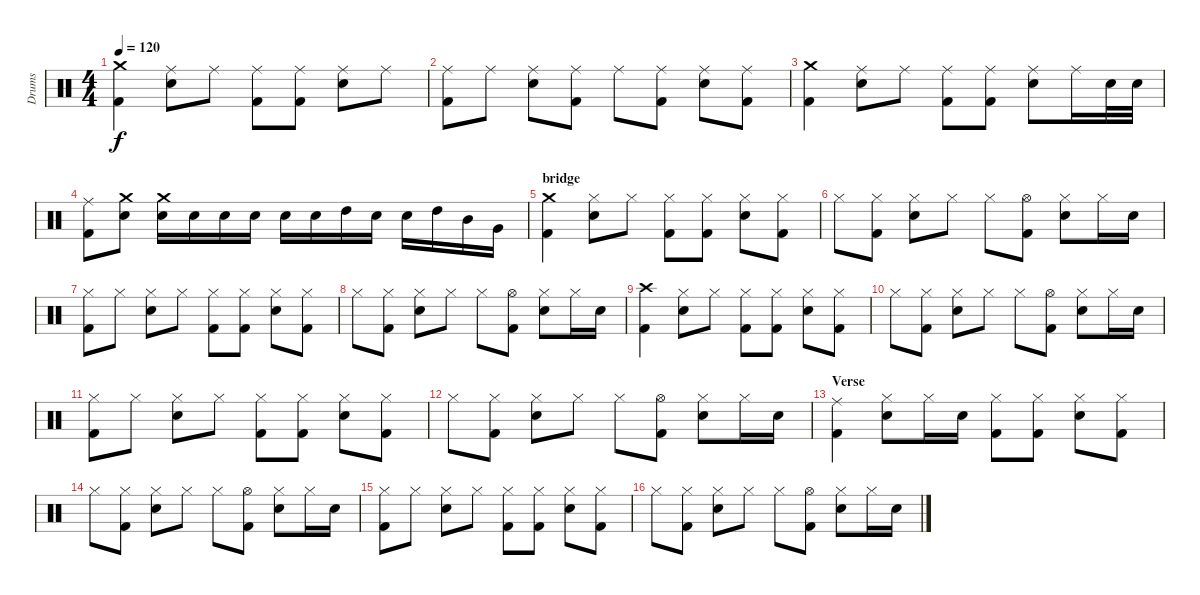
\track ("Drums" "Drums") {instrument percussion}
\staff {score}
\articulation defaults
\ts (4 4)
\tempo 120
\clef neutral
\ks c
("Crash medium (hit)" "Kick (hit) 2").4{dy f} ("Ride (middle)" "Snare (hit) 2").8 "Ride (middle)".8 ("Ride (middle)" "Kick (hit) 2").8 ("Ride (middle)" "Kick (hit) 2").8 ("Ride (middle)" "Snare (hit) 2").8 "Ride (middle)".8 |
("Ride (middle)" "Kick (hit) 2").8 "Ride (middle)".8 ("Ride (middle)" "Snare (hit) 2").8 ("Ride (middle)" "Kick (hit) 2").8 "Ride (middle)".8 ("Ride (middle)" "Kick (hit) 2").8 ("Ride (middle)" "Snare (hit) 2").8 ("Ride (middle)" "Kick (hit) 2").8 |
("Crash medium (hit)" "Kick (hit) 2").4 ("Ride (middle)" "Snare (hit) 2").8 "Ride (middle)".8 ("Ride (middle)" "Kick (hit) 2").8 ("Ride (middle)" "Kick (hit) 2").8 ("Ride (middle)" "Snare (hit) 2").8 "Ride (middle)".16 "Snare (hit) 2".32 "Snare (hit) 2".32 |
("Ride (middle)" "Kick (hit) 2").8 ("Crash medium (hit)" "Snare (hit) 2").8 ("Crash medium (hit)" "Snare (hit) 2").16 "Snare (hit) 2".16 "Snare (hit) 2".16 "Snare (hit) 2".16 "Snare (hit) 2".16 "Snare (hit) 2".16 "High Tom (hit)".16 "Snare (hit) 2".16 "Snare (hit) 2".16 "High Tom (hit)".16 "Mid Tom (hit)".16 "Very Low Tom (hit)".16 |
\section ("" "bridge")
("Crash medium (hit)" "Kick (hit) 2").4 ("Hi-Hat (closed)" "Snare (hit) 2").8 "Hi-Hat (closed)".8 ("Hi-Hat (closed)" "Kick (hit) 2").8 ("Hi-Hat (closed)" "Kick (hit) 2").8 ("Hi-Hat (closed)" "Snare (hit) 2").8 ("Hi-Hat (closed)" "Kick (hit) 2").8 |
"Hi-Hat (closed)".8 ("Hi-Hat (closed)" "Kick (hit) 2").8 ("Hi-Hat (closed)" "Snare (hit) 2").8 "Hi-Hat (closed)".8 "Hi-Hat (closed)".8 ("Hi-Hat (open)" "Kick (hit) 2").8 ("Hi-Hat (closed)" "Snare (hit) 2").8 "Hi-Hat (closed)".16 "Snare (hit) 2".16 |
("Hi-Hat (closed)" "Kick (hit) 2").8 "Hi-Hat (closed)".8 ("Hi-Hat (closed)" "Snare (hit) 2").8 "Hi-Hat (closed)".8 ("Hi-Hat (closed)" "Kick (hit) 2").8 ("Hi-Hat (closed)" "Kick (hit) 2").8 ("Hi-Hat (closed)" "Snare (hit) 2").8 ("Hi-Hat (closed)" "Kick (hit) 2").8 |
"Hi-Hat (closed)".8 ("Hi-Hat (closed)" "Kick (hit) 2").8 ("Hi-Hat (closed)" "Snare (hit) 2").8 "Hi-Hat (closed)".8 "Hi-Hat (closed)".8 ("Hi-Hat (open)" "Kick (hit) 2").8 ("Hi-Hat (closed)" "Snare (hit) 2").8 "Hi-Hat (closed)".16 "Snare (hit) 2".16 |
("Crash high (hit)" "Kick (hit) 2").4 ("Hi-Hat (closed)" "Snare (hit) 2").8 "Hi-Hat (closed)".8 ("Hi-Hat (closed)" "Kick (hit) 2").8 ("Hi-Hat (closed)" "Kick (hit) 2").8 ("Hi-Hat (closed)" "Snare (hit) 2").8 ("Hi-Hat (closed)" "Kick (hit) 2").8 |
"Hi-Hat (closed)".8 ("Hi-Hat (closed)" "Kick (hit) 2").8 ("Hi-Hat (closed)" "Snare (hit) 2").8 "Hi-Hat (closed)".8 "Hi-Hat (closed)".8 ("Hi-Hat (open)" "Kick (hit) 2").8 ("Hi-Hat (closed)" "Snare (hit) 2").8 "Hi-Hat (closed)".16 "Snare (hit) 2".16 |
("Hi-Hat (closed)" "Kick (hit) 2").8 "Hi-Hat (closed)".8 ("Hi-Hat (closed)" "Snare (hit) 2").8 "Hi-Hat (closed)".8 ("Hi-Hat (closed)" "Kick (hit) 2").8 ("Hi-Hat (closed)" "Kick (hit) 2").8 ("Hi-Hat (closed)" "Snare (hit) 2").8 ("Hi-Hat (closed)" "Kick (hit) 2").8 |
"Hi-Hat (closed)".8 ("Hi-Hat (closed)" "Kick (hit) 2").8 ("Hi-Hat (closed)" "Snare (hit) 2").8 "Hi-Hat (closed)".8 "Hi-Hat (closed)".8 ("Hi-Hat (open)" "Kick (hit) 2").8 ("Hi-Hat (closed)" "Snare (hit) 2").8 "Hi-Hat (closed)".16 "Snare (hit) 2".16 |
\section ("" "Verse")
("Ride (middle)" "Kick (hit) 2").4 ("Hi-Hat (closed)" "Snare (hit) 2").8 "Hi-Hat (closed)".16 "Snare (hit) 2".16 ("Hi-Hat (closed)" "Kick (hit) 2").8 ("Hi-Hat (closed)" "Kick (hit) 2").8 ("Hi-Hat (closed)" "Snare (hit) 2").8 ("Hi-Hat (closed)" "Kick (hit) 2").8 |
"Hi-Hat (closed)".8 ("Hi-Hat (closed)" "Kick (hit) 2").8 ("Hi-Hat (closed)" "Snare (hit) 2").8 "Hi-Hat (closed)".8 "Hi-Hat (closed)".8 ("Hi-Hat (open)" "Kick (hit) 2").8 ("Hi-Hat (closed)" "Snare (hit) 2").8 "Hi-Hat (closed)".16 "Snare (hit) 2".16 |
("Hi-Hat (closed)" "Kick (hit) 2").8 "Hi-Hat (closed)".8 ("Hi-Hat (closed)" "Snare (hit) 2").8 "Hi-Hat (closed)".8 ("Hi-Hat (closed)" "Kick (hit) 2").8 ("Hi-Hat (closed)" "Kick (hit) 2").8 ("Hi-Hat (closed)" "Snare (hit) 2").8 ("Hi-Hat (closed)" "Kick (hit) 2").8 |
"Hi-Hat (closed)".8 ("Hi-Hat (closed)" "Kick (hit) 2").8 ("Hi-Hat (closed)" "Snare (hit) 2").8 "Hi-Hat (closed)".8 "Hi-Hat (closed)".8 ("Hi-Hat (open)" "Kick (hit) 2").8 ("Hi-Hat (closed)" "Snare (hit) 2").8 "Hi-Hat (closed)".16 "Snare (hit) 2".16
